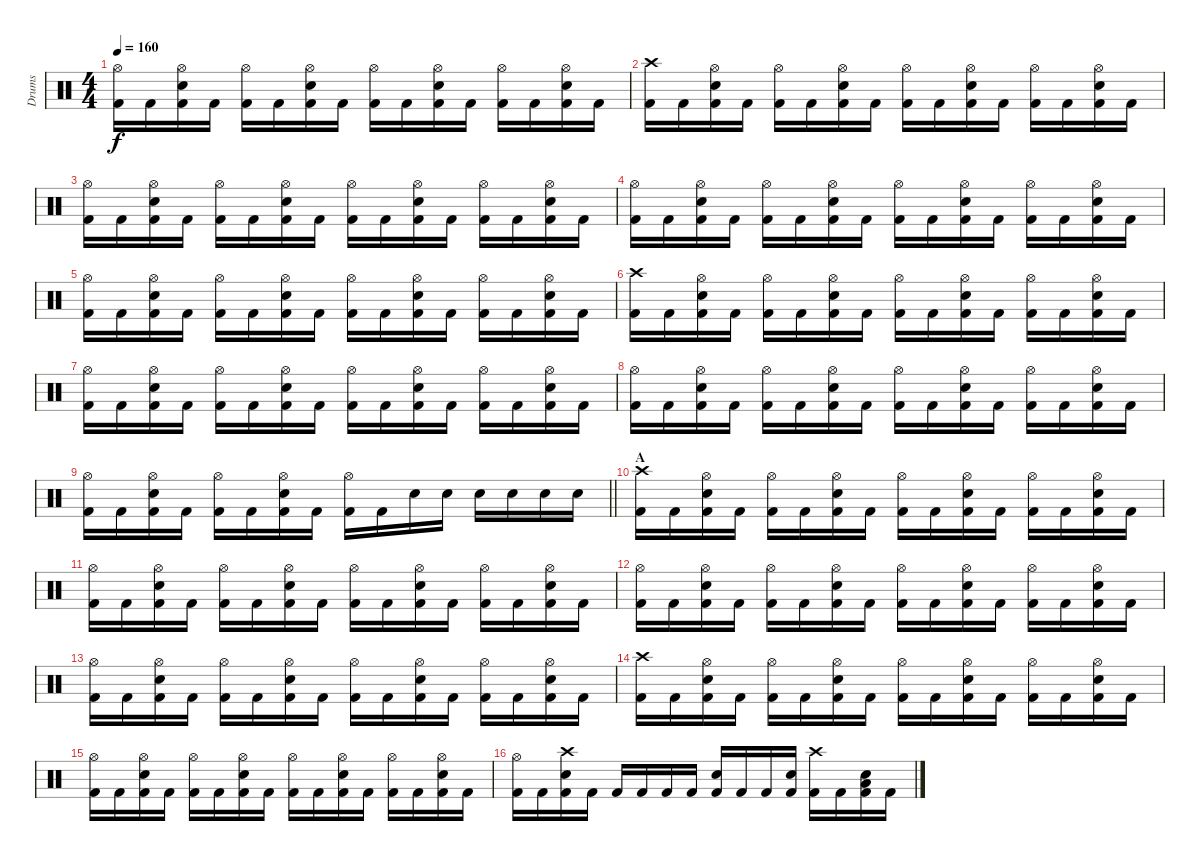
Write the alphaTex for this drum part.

\track ("Drums" "Drums") {instrument percussion}
\staff {score}
\articulation defaults
\ts (4 4)
\tempo 160
\clef neutral
\ks c
("Hi-Hat (open)" "Kick (hit) 2").16{dy f} "Kick (hit) 2".16 ("Hi-Hat (open)" "Snare (hit) 2" "Kick (hit) 2").16 "Kick (hit) 2".16 ("Hi-Hat (open)" "Kick (hit) 2").16 "Kick (hit) 2".16 ("Hi-Hat (open)" "Snare (hit) 2" "Kick (hit) 2").16 "Kick (hit) 2".16 ("Hi-Hat (open)" "Kick (hit) 2").16 "Kick (hit) 2".16 ("Hi-Hat (open)" "Snare (hit) 2" "Kick (hit) 2").16 "Kick (hit) 2".16 ("Hi-Hat (open)" "Kick (hit) 2").16 "Kick (hit) 2".16 ("Hi-Hat (open)" "Snare (hit) 2" "Kick (hit) 2").16 "Kick (hit) 2".16 |
("Crash high (hit)" "Kick (hit) 2").16 "Kick (hit) 2".16 ("Hi-Hat (open)" "Snare (hit) 2" "Kick (hit) 2").16 "Kick (hit) 2".16 ("Hi-Hat (open)" "Kick (hit) 2").16 "Kick (hit) 2".16 ("Hi-Hat (open)" "Snare (hit) 2" "Kick (hit) 2").16 "Kick (hit) 2".16 ("Hi-Hat (open)" "Kick (hit) 2").16 "Kick (hit) 2".16 ("Hi-Hat (open)" "Snare (hit) 2" "Kick (hit) 2").16 "Kick (hit) 2".16 ("Hi-Hat (open)" "Kick (hit) 2").16 "Kick (hit) 2".16 ("Hi-Hat (open)" "Snare (hit) 2" "Kick (hit) 2").16 "Kick (hit) 2".16 |
("Hi-Hat (open)" "Kick (hit) 2").16 "Kick (hit) 2".16 ("Hi-Hat (open)" "Snare (hit) 2" "Kick (hit) 2").16 "Kick (hit) 2".16 ("Hi-Hat (open)" "Kick (hit) 2").16 "Kick (hit) 2".16 ("Hi-Hat (open)" "Snare (hit) 2" "Kick (hit) 2").16 "Kick (hit) 2".16 ("Hi-Hat (open)" "Kick (hit) 2").16 "Kick (hit) 2".16 ("Hi-Hat (open)" "Snare (hit) 2" "Kick (hit) 2").16 "Kick (hit) 2".16 ("Hi-Hat (open)" "Kick (hit) 2").16 "Kick (hit) 2".16 ("Hi-Hat (open)" "Snare (hit) 2" "Kick (hit) 2").16 "Kick (hit) 2".16 |
("Hi-Hat (open)" "Kick (hit) 2").16 "Kick (hit) 2".16 ("Hi-Hat (open)" "Snare (hit) 2" "Kick (hit) 2").16 "Kick (hit) 2".16 ("Hi-Hat (open)" "Kick (hit) 2").16 "Kick (hit) 2".16 ("Hi-Hat (open)" "Snare (hit) 2" "Kick (hit) 2").16 "Kick (hit) 2".16 ("Hi-Hat (open)" "Kick (hit) 2").16 "Kick (hit) 2".16 ("Hi-Hat (open)" "Snare (hit) 2" "Kick (hit) 2").16 "Kick (hit) 2".16 ("Hi-Hat (open)" "Kick (hit) 2").16 "Kick (hit) 2".16 ("Hi-Hat (open)" "Snare (hit) 2" "Kick (hit) 2").16 "Kick (hit) 2".16 |
("Hi-Hat (open)" "Kick (hit) 2").16 "Kick (hit) 2".16 ("Hi-Hat (open)" "Snare (hit) 2" "Kick (hit) 2").16 "Kick (hit) 2".16 ("Hi-Hat (open)" "Kick (hit) 2").16 "Kick (hit) 2".16 ("Hi-Hat (open)" "Snare (hit) 2" "Kick (hit) 2").16 "Kick (hit) 2".16 ("Hi-Hat (open)" "Kick (hit) 2").16 "Kick (hit) 2".16 ("Hi-Hat (open)" "Snare (hit) 2" "Kick (hit) 2").16 "Kick (hit) 2".16 ("Hi-Hat (open)" "Kick (hit) 2").16 "Kick (hit) 2".16 ("Hi-Hat (open)" "Snare (hit) 2" "Kick (hit) 2").16 "Kick (hit) 2".16 |
("Crash high (hit)" "Kick (hit) 2").16 "Kick (hit) 2".16 ("Hi-Hat (open)" "Snare (hit) 2" "Kick (hit) 2").16 "Kick (hit) 2".16 ("Hi-Hat (open)" "Kick (hit) 2").16 "Kick (hit) 2".16 ("Hi-Hat (open)" "Snare (hit) 2" "Kick (hit) 2").16 "Kick (hit) 2".16 ("Hi-Hat (open)" "Kick (hit) 2").16 "Kick (hit) 2".16 ("Hi-Hat (open)" "Snare (hit) 2" "Kick (hit) 2").16 "Kick (hit) 2".16 ("Hi-Hat (open)" "Kick (hit) 2").16 "Kick (hit) 2".16 ("Hi-Hat (open)" "Snare (hit) 2" "Kick (hit) 2").16 "Kick (hit) 2".16 |
("Hi-Hat (open)" "Kick (hit) 2").16 "Kick (hit) 2".16 ("Hi-Hat (open)" "Snare (hit) 2" "Kick (hit) 2").16 "Kick (hit) 2".16 ("Hi-Hat (open)" "Kick (hit) 2").16 "Kick (hit) 2".16 ("Hi-Hat (open)" "Snare (hit) 2" "Kick (hit) 2").16 "Kick (hit) 2".16 ("Hi-Hat (open)" "Kick (hit) 2").16 "Kick (hit) 2".16 ("Hi-Hat (open)" "Snare (hit) 2" "Kick (hit) 2").16 "Kick (hit) 2".16 ("Hi-Hat (open)" "Kick (hit) 2").16 "Kick (hit) 2".16 ("Hi-Hat (open)" "Snare (hit) 2" "Kick (hit) 2").16 "Kick (hit) 2".16 |
("Hi-Hat (open)" "Kick (hit) 2").16 "Kick (hit) 2".16 ("Hi-Hat (open)" "Snare (hit) 2" "Kick (hit) 2").16 "Kick (hit) 2".16 ("Hi-Hat (open)" "Kick (hit) 2").16 "Kick (hit) 2".16 ("Hi-Hat (open)" "Snare (hit) 2" "Kick (hit) 2").16 "Kick (hit) 2".16 ("Hi-Hat (open)" "Kick (hit) 2").16 "Kick (hit) 2".16 ("Hi-Hat (open)" "Snare (hit) 2" "Kick (hit) 2").16 "Kick (hit) 2".16 ("Hi-Hat (open)" "Kick (hit) 2").16 "Kick (hit) 2".16 ("Hi-Hat (open)" "Snare (hit) 2" "Kick (hit) 2").16 "Kick (hit) 2".16 |
\barLineRight lightlight
("Hi-Hat (open)" "Kick (hit) 2").16 "Kick (hit) 2".16 ("Hi-Hat (open)" "Snare (hit) 2" "Kick (hit) 2").16 "Kick (hit) 2".16 ("Hi-Hat (open)" "Kick (hit) 2").16 "Kick (hit) 2".16 ("Hi-Hat (open)" "Snare (hit) 2" "Kick (hit) 2").16 "Kick (hit) 2".16 ("Hi-Hat (open)" "Kick (hit) 2").16 "Kick (hit) 2".16 "Snare (hit) 2".16 "Snare (hit) 2".16 "Snare (hit) 2".16 "Snare (hit) 2".16 "Snare (hit) 2".16 "Snare (hit) 2".16 |
\section ("" "A")
("Crash high (hit)" "Kick (hit) 2").16 "Kick (hit) 2".16 ("Hi-Hat (open)" "Snare (hit) 2" "Kick (hit) 2").16 "Kick (hit) 2".16 ("Hi-Hat (open)" "Kick (hit) 2").16 "Kick (hit) 2".16 ("Hi-Hat (open)" "Snare (hit) 2" "Kick (hit) 2").16 "Kick (hit) 2".16 ("Hi-Hat (open)" "Kick (hit) 2").16 "Kick (hit) 2".16 ("Hi-Hat (open)" "Snare (hit) 2" "Kick (hit) 2").16 "Kick (hit) 2".16 ("Hi-Hat (open)" "Kick (hit) 2").16 "Kick (hit) 2".16 ("Hi-Hat (open)" "Snare (hit) 2" "Kick (hit) 2").16 "Kick (hit) 2".16 |
("Hi-Hat (open)" "Kick (hit) 2").16 "Kick (hit) 2".16 ("Hi-Hat (open)" "Snare (hit) 2" "Kick (hit) 2").16 "Kick (hit) 2".16 ("Hi-Hat (open)" "Kick (hit) 2").16 "Kick (hit) 2".16 ("Hi-Hat (open)" "Snare (hit) 2" "Kick (hit) 2").16 "Kick (hit) 2".16 ("Hi-Hat (open)" "Kick (hit) 2").16 "Kick (hit) 2".16 ("Hi-Hat (open)" "Snare (hit) 2" "Kick (hit) 2").16 "Kick (hit) 2".16 ("Hi-Hat (open)" "Kick (hit) 2").16 "Kick (hit) 2".16 ("Hi-Hat (open)" "Snare (hit) 2" "Kick (hit) 2").16 "Kick (hit) 2".16 |
("Hi-Hat (open)" "Kick (hit) 2").16 "Kick (hit) 2".16 ("Hi-Hat (open)" "Snare (hit) 2" "Kick (hit) 2").16 "Kick (hit) 2".16 ("Hi-Hat (open)" "Kick (hit) 2").16 "Kick (hit) 2".16 ("Hi-Hat (open)" "Snare (hit) 2" "Kick (hit) 2").16 "Kick (hit) 2".16 ("Hi-Hat (open)" "Kick (hit) 2").16 "Kick (hit) 2".16 ("Hi-Hat (open)" "Snare (hit) 2" "Kick (hit) 2").16 "Kick (hit) 2".16 ("Hi-Hat (open)" "Kick (hit) 2").16 "Kick (hit) 2".16 ("Hi-Hat (open)" "Snare (hit) 2" "Kick (hit) 2").16 "Kick (hit) 2".16 |
("Hi-Hat (open)" "Kick (hit) 2").16 "Kick (hit) 2".16 ("Hi-Hat (open)" "Snare (hit) 2" "Kick (hit) 2").16 "Kick (hit) 2".16 ("Hi-Hat (open)" "Kick (hit) 2").16 "Kick (hit) 2".16 ("Hi-Hat (open)" "Snare (hit) 2" "Kick (hit) 2").16 "Kick (hit) 2".16 ("Hi-Hat (open)" "Kick (hit) 2").16 "Kick (hit) 2".16 ("Hi-Hat (open)" "Snare (hit) 2" "Kick (hit) 2").16 "Kick (hit) 2".16 ("Hi-Hat (open)" "Kick (hit) 2").16 "Kick (hit) 2".16 ("Hi-Hat (open)" "Snare (hit) 2" "Kick (hit) 2").16 "Kick (hit) 2".16 |
("Crash high (hit)" "Kick (hit) 2").16 "Kick (hit) 2".16 ("Hi-Hat (open)" "Snare (hit) 2" "Kick (hit) 2").16 "Kick (hit) 2".16 ("Hi-Hat (open)" "Kick (hit) 2").16 "Kick (hit) 2".16 ("Hi-Hat (open)" "Snare (hit) 2" "Kick (hit) 2").16 "Kick (hit) 2".16 ("Hi-Hat (open)" "Kick (hit) 2").16 "Kick (hit) 2".16 ("Hi-Hat (open)" "Snare (hit) 2" "Kick (hit) 2").16 "Kick (hit) 2".16 ("Hi-Hat (open)" "Kick (hit) 2").16 "Kick (hit) 2".16 ("Hi-Hat (open)" "Snare (hit) 2" "Kick (hit) 2").16 "Kick (hit) 2".16 |
("Hi-Hat (open)" "Kick (hit) 2").16 "Kick (hit) 2".16 ("Hi-Hat (open)" "Snare (hit) 2" "Kick (hit) 2").16 "Kick (hit) 2".16 ("Hi-Hat (open)" "Kick (hit) 2").16 "Kick (hit) 2".16 ("Hi-Hat (open)" "Snare (hit) 2" "Kick (hit) 2").16 "Kick (hit) 2".16 ("Hi-Hat (open)" "Kick (hit) 2").16 "Kick (hit) 2".16 ("Hi-Hat (open)" "Snare (hit) 2" "Kick (hit) 2").16 "Kick (hit) 2".16 ("Hi-Hat (open)" "Kick (hit) 2").16 "Kick (hit) 2".16 ("Hi-Hat (open)" "Snare (hit) 2" "Kick (hit) 2").16 "Kick (hit) 2".16 |
("Hi-Hat (open)" "Kick (hit) 2").16 "Kick (hit) 2".16 ("Crash high (hit)" "Snare (hit) 2" "Kick (hit) 2").16 "Kick (hit) 2".16 "Kick (hit) 2".16 "Kick (hit) 2".16 "Kick (hit) 2".16 "Kick (hit) 2".16 ("Snare (hit) 2" "Kick (hit) 2").16 "Kick (hit) 2".16 "Kick (hit) 2".16 ("Snare (hit) 2" "Kick (hit) 2").16 ("Crash high (hit)" "Kick (hit) 2").16 "Kick (hit) 2".16 ("Low Tom (hit)" "Snare (hit) 2" "Kick (hit) 2").16 "Kick (hit) 2".16
